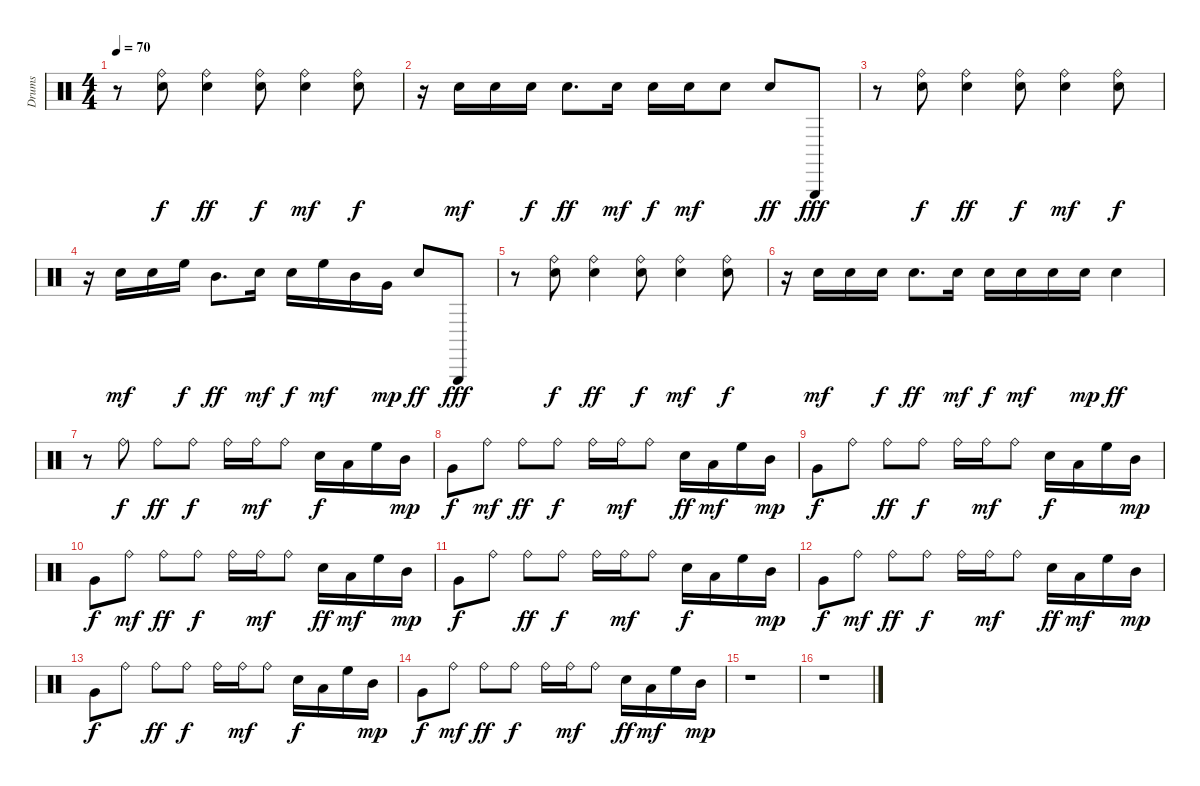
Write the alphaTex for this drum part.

\track ("Drums" "Drums") {instrument percussion}
\staff {score}
\articulation defaults
\ts (4 4)
\tempo 70
\clef neutral
\ks c
r.8{dy ff} ("Ride (bell)" "Electric Snare (hit)").8{dy f} ("Ride (bell)" "Electric Snare (hit)").4{dy ff} ("Ride (bell)" "Electric Snare (hit)").8{dy f} ("Ride (bell)" "Electric Snare (hit)").4{dy mf} ("Ride (bell)" "Electric Snare (hit)").8{dy f} |
r.16 "Electric Snare (hit)".16{dy mf} "Electric Snare (hit)".16 "Electric Snare (hit)".16{dy f} "Electric Snare (hit)".8{d dy ff} "Electric Snare (hit)".16{dy mf} "Electric Snare (hit)".16{dy f} "Electric Snare (hit)".16{dy mf} "Electric Snare (hit)".8 "Electric Snare (hit)".8{dy ff} "Triangle (hit)".8{dy fff} |
r.8 ("Ride (bell)" "Electric Snare (hit)").8{dy f} ("Ride (bell)" "Electric Snare (hit)").4{dy ff} ("Ride (bell)" "Electric Snare (hit)").8{dy f} ("Ride (bell)" "Electric Snare (hit)").4{dy mf} ("Ride (bell)" "Electric Snare (hit)").8{dy f} |
r.16 "Electric Snare (hit)".16{dy mf} "Electric Snare (hit)".16 "High Floor Tom (hit)".16{dy f} "Mid Tom (hit)".8{d dy ff} "Electric Snare (hit)".16{dy mf} "Electric Snare (hit)".16{dy f} "High Floor Tom (hit)".16{dy mf} "Mid Tom (hit)".16 "Very Low Tom (hit)".16{dy mp} "Electric Snare (hit)".8{dy ff} "Triangle (hit)".8{dy fff} |
r.8 ("Ride (bell)" "Electric Snare (hit)").8{dy f} ("Ride (bell)" "Electric Snare (hit)").4{dy ff} ("Ride (bell)" "Electric Snare (hit)").8{dy f} ("Ride (bell)" "Electric Snare (hit)").4{dy mf} ("Ride (bell)" "Electric Snare (hit)").8{dy f} |
r.16 "Electric Snare (hit)".16{dy mf} "Electric Snare (hit)".16 "Electric Snare (hit)".16{dy f} "Electric Snare (hit)".8{d dy ff} "Electric Snare (hit)".16{dy mf} "Electric Snare (hit)".16{dy f} "Electric Snare (hit)".16{dy mf} "Electric Snare (hit)".16 "Electric Snare (hit)".16{dy mp} "Electric Snare (hit)".4{dy ff} |
r.8 "Ride (bell)".8{dy f} "Ride (bell)".8{dy ff} "Ride (bell)".8{dy f} "Ride (bell)".16 "Ride (bell)".16{dy mf} "Ride (bell)".8 "Electric Snare (hit)".16{dy f} "Low Tom (hit)".16 "High Floor Tom (hit)".16 "Mid Tom (hit)".16{dy mp} |
"Very Low Tom (hit)".8{dy f} "Ride (bell)".8{dy mf} "Ride (bell)".8{dy ff} "Ride (bell)".8{dy f} "Ride (bell)".16 "Ride (bell)".16{dy mf} "Ride (bell)".8 "Electric Snare (hit)".16{dy ff} "Low Tom (hit)".16{dy mf} "High Floor Tom (hit)".16 "Mid Tom (hit)".16{dy mp} |
"Very Low Tom (hit)".8{dy f} "Ride (bell)".8 "Ride (bell)".8{dy ff} "Ride (bell)".8{dy f} "Ride (bell)".16 "Ride (bell)".16{dy mf} "Ride (bell)".8 "Electric Snare (hit)".16{dy f} "Low Tom (hit)".16 "High Floor Tom (hit)".16 "Mid Tom (hit)".16{dy mp} |
"Very Low Tom (hit)".8{dy f} "Ride (bell)".8{dy mf} "Ride (bell)".8{dy ff} "Ride (bell)".8{dy f} "Ride (bell)".16 "Ride (bell)".16{dy mf} "Ride (bell)".8 "Electric Snare (hit)".16{dy ff} "Low Tom (hit)".16{dy mf} "High Floor Tom (hit)".16 "Mid Tom (hit)".16{dy mp} |
"Very Low Tom (hit)".8{dy f} "Ride (bell)".8 "Ride (bell)".8{dy ff} "Ride (bell)".8{dy f} "Ride (bell)".16 "Ride (bell)".16{dy mf} "Ride (bell)".8 "Electric Snare (hit)".16{dy f} "Low Tom (hit)".16 "High Floor Tom (hit)".16 "Mid Tom (hit)".16{dy mp} |
"Very Low Tom (hit)".8{dy f} "Ride (bell)".8{dy mf} "Ride (bell)".8{dy ff} "Ride (bell)".8{dy f} "Ride (bell)".16 "Ride (bell)".16{dy mf} "Ride (bell)".8 "Electric Snare (hit)".16{dy ff} "Low Tom (hit)".16{dy mf} "High Floor Tom (hit)".16 "Mid Tom (hit)".16{dy mp} |
"Very Low Tom (hit)".8{dy f} "Ride (bell)".8 "Ride (bell)".8{dy ff} "Ride (bell)".8{dy f} "Ride (bell)".16 "Ride (bell)".16{dy mf} "Ride (bell)".8 "Electric Snare (hit)".16{dy f} "Low Tom (hit)".16 "High Floor Tom (hit)".16 "Mid Tom (hit)".16{dy mp} |
"Very Low Tom (hit)".8{dy f} "Ride (bell)".8{dy mf} "Ride (bell)".8{dy ff} "Ride (bell)".8{dy f} "Ride (bell)".16 "Ride (bell)".16{dy mf} "Ride (bell)".8 "Electric Snare (hit)".16{dy ff} "Low Tom (hit)".16{dy mf} "High Floor Tom (hit)".16 "Mid Tom (hit)".16{dy mp} |
r.1 |
r.1
